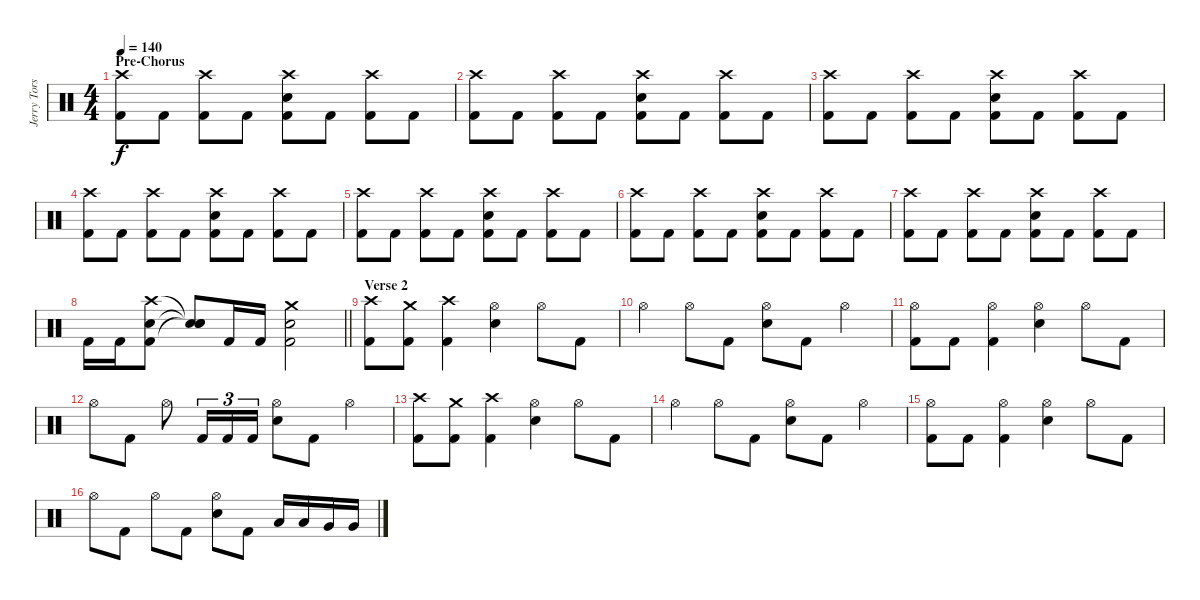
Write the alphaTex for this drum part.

\track ("Jerry Torstensson" "Jerry Tors") {instrument percussion}
\staff {score}
\articulation defaults
\ts (4 4)
\section ("" "Pre-Chorus")
\tempo 140
\clef neutral
\ks c
("Crash high (hit)" "Kick (hit) 2").8{dy f} "Kick (hit) 2".8 ("Crash high (hit)" "Kick (hit) 2").8 "Kick (hit) 2".8 ("Crash high (hit)" "Snare (hit) 2" "Kick (hit) 2").8 "Kick (hit) 2".8 ("Crash high (hit)" "Kick (hit) 2").8 "Kick (hit) 2".8 |
("Crash high (hit)" "Kick (hit) 2").8 "Kick (hit) 2".8 ("Crash high (hit)" "Kick (hit) 2").8 "Kick (hit) 2".8 ("Crash high (hit)" "Snare (hit) 2" "Kick (hit) 2").8 "Kick (hit) 2".8 ("Crash high (hit)" "Kick (hit) 2").8 "Kick (hit) 2".8 |
("Crash high (hit)" "Kick (hit) 2").8 "Kick (hit) 2".8 ("Crash high (hit)" "Kick (hit) 2").8 "Kick (hit) 2".8 ("Crash high (hit)" "Snare (hit) 2" "Kick (hit) 2").8 "Kick (hit) 2".8 ("Crash high (hit)" "Kick (hit) 2").8 "Kick (hit) 2".8 |
("Crash high (hit)" "Kick (hit) 2").8 "Kick (hit) 2".8 ("Crash high (hit)" "Kick (hit) 2").8 "Kick (hit) 2".8 ("Crash high (hit)" "Snare (hit) 2" "Kick (hit) 2").8 "Kick (hit) 2".8 ("Crash high (hit)" "Kick (hit) 2").8 "Kick (hit) 2".8 |
("Crash high (hit)" "Kick (hit) 2").8 "Kick (hit) 2".8 ("Crash high (hit)" "Kick (hit) 2").8 "Kick (hit) 2".8 ("Crash high (hit)" "Snare (hit) 2" "Kick (hit) 2").8 "Kick (hit) 2".8 ("Crash high (hit)" "Kick (hit) 2").8 "Kick (hit) 2".8 |
("Crash high (hit)" "Kick (hit) 2").8 "Kick (hit) 2".8 ("Crash high (hit)" "Kick (hit) 2").8 "Kick (hit) 2".8 ("Crash high (hit)" "Snare (hit) 2" "Kick (hit) 2").8 "Kick (hit) 2".8 ("Crash high (hit)" "Kick (hit) 2").8 "Kick (hit) 2".8 |
("Crash high (hit)" "Kick (hit) 2").8 "Kick (hit) 2".8 ("Crash high (hit)" "Kick (hit) 2").8 "Kick (hit) 2".8 ("Crash high (hit)" "Snare (hit) 2" "Kick (hit) 2").8 "Kick (hit) 2".8 ("Crash high (hit)" "Kick (hit) 2").8 "Kick (hit) 2".8 |
\barLineRight lightlight "Kick (hit) 2".16 "Kick (hit) 2".16
("Crash high (hit)" "Snare (hit) 2" "Kick (hit) 2").8 ("Snare (hit)"{t} "Snare (hit)"{t} "Snare (hit)"{t}).8 "Kick (hit) 2".16 "Kick (hit) 2".16 ("Crash medium (hit)" "Snare (hit) 2" "Kick (hit) 2").2 |
\section ("" "Verse 2")
("Crash high (hit)" "Kick (hit) 2").8 ("Crash medium (hit)" "Kick (hit) 2").8 ("Crash high (hit)" "Kick (hit) 2").4 ("Hi-Hat (open)" "Snare (hit) 2").4 "Hi-Hat (open)".8 "Kick (hit) 2".8 |
"Hi-Hat (open)".4 "Hi-Hat (open)".8 "Kick (hit) 2".8 ("Hi-Hat (open)" "Snare (hit) 2").8 "Kick (hit) 2".8 "Hi-Hat (open)".4 |
("Hi-Hat (open)" "Kick (hit) 2").8 "Kick (hit) 2".8 ("Hi-Hat (open)" "Kick (hit) 2").4 ("Hi-Hat (open)" "Snare (hit) 2").4 "Hi-Hat (open)".8 "Kick (hit) 2".8 |
"Hi-Hat (open)".8 "Kick (hit) 2".8 "Hi-Hat (open)".8 "Kick (hit) 2".16{tu (3 2)} "Kick (hit) 2".16{tu (3 2)} "Kick (hit) 2".16{tu (3 2)} ("Hi-Hat (open)" "Snare (hit) 2").8 "Kick (hit) 2".8 "Hi-Hat (open)".4 |
("Crash high (hit)" "Kick (hit) 2").8 ("Crash medium (hit)" "Kick (hit) 2").8 ("Crash high (hit)" "Kick (hit) 2").4 ("Hi-Hat (open)" "Snare (hit) 2").4 "Hi-Hat (open)".8 "Kick (hit) 2".8 |
"Hi-Hat (open)".4 "Hi-Hat (open)".8 "Kick (hit) 2".8 ("Hi-Hat (open)" "Snare (hit) 2").8 "Kick (hit) 2".8 "Hi-Hat (open)".4 |
("Hi-Hat (open)" "Kick (hit) 2").8 "Kick (hit) 2".8 ("Hi-Hat (open)" "Kick (hit) 2").4 ("Hi-Hat (open)" "Snare (hit) 2").4 "Hi-Hat (open)".8 "Kick (hit) 2".8 |
"Hi-Hat (open)".8 "Kick (hit) 2".8 "Hi-Hat (open)".8 "Kick (hit) 2".8 ("Hi-Hat (open)" "Snare (hit) 2").8 "Kick (hit) 2".8 "Low Tom (hit)".16 "Low Tom (hit)".16 "Very Low Tom (hit)".16 "Very Low Tom (hit)".16
